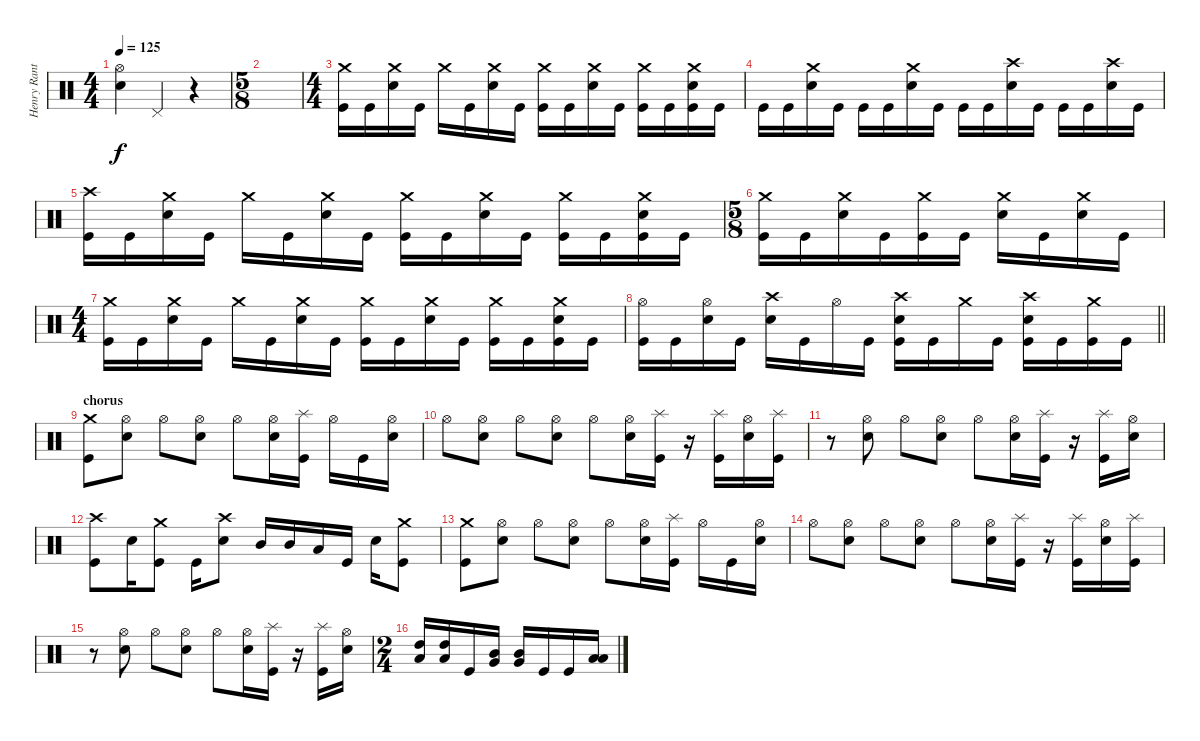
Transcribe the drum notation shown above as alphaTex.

\track ("Henry Ranta" "Henry Rant") {instrument percussion}
\staff {score}
\articulation defaults
\ts (4 4)
\tempo 125
\clef neutral
\ks c
("Hi-Hat (open)" "Electric Snare (hit)").4{dy f} "Pedal Hi-Hat (hit)".4 r.4 |
\ts (5 8)
|
\ts (4 4)
("Crash medium (hit)" "Kick (hit)").16 "Kick (hit)".16 ("Crash medium (hit)" "Electric Snare (hit)").16 "Kick (hit)".16 "Crash medium (hit)".16 "Kick (hit)".16 ("Crash medium (hit)" "Electric Snare (hit)").16 "Kick (hit)".16 ("Crash medium (hit)" "Kick (hit)").16 "Kick (hit)".16 ("Crash medium (hit)" "Electric Snare (hit)").16 "Kick (hit)".16 ("Crash medium (hit)" "Kick (hit)").16 "Kick (hit)".16 ("Crash medium (hit)" "Electric Snare (hit)" "Kick (hit)").16 "Kick (hit)".16 |
"Kick (hit)".16 "Kick (hit)".16 ("Crash medium (hit)" "Electric Snare (hit)").16 "Kick (hit)".16 "Kick (hit)".16 "Kick (hit)".16 ("Crash medium (hit)" "Electric Snare (hit)").16 "Kick (hit)".16 "Kick (hit)".16 "Kick (hit)".16 ("Crash high (hit)" "Electric Snare (hit)").16 "Kick (hit)".16 "Kick (hit)".16 "Kick (hit)".16 ("Crash high (hit)" "Electric Snare (hit)").16 "Kick (hit)".16 |
("Crash high (hit)" "Kick (hit)").16 "Kick (hit)".16 ("Crash medium (hit)" "Electric Snare (hit)").16 "Kick (hit)".16 "Crash medium (hit)".16 "Kick (hit)".16 ("Crash medium (hit)" "Electric Snare (hit)").16 "Kick (hit)".16 ("Crash medium (hit)" "Kick (hit)").16 "Kick (hit)".16 ("Crash medium (hit)" "Electric Snare (hit)").16 "Kick (hit)".16 ("Crash medium (hit)" "Kick (hit)").16 "Kick (hit)".16 ("Crash medium (hit)" "Electric Snare (hit)" "Kick (hit)").16 "Kick (hit)".16 |
\ts (5 8)
("Crash medium (hit)" "Kick (hit)").16 "Kick (hit)".16 ("Crash medium (hit)" "Electric Snare (hit)").16 "Kick (hit)".16 ("Crash medium (hit)" "Kick (hit)").16 "Kick (hit)".16 ("Crash medium (hit)" "Electric Snare (hit)").16 "Kick (hit)".16 ("Crash medium (hit)" "Electric Snare (hit)").16 "Kick (hit)".16 |
\ts (4 4)
("Crash medium (hit)" "Kick (hit)").16 "Kick (hit)".16 ("Crash medium (hit)" "Electric Snare (hit)").16 "Kick (hit)".16 "Crash medium (hit)".16 "Kick (hit)".16 ("Crash medium (hit)" "Electric Snare (hit)").16 "Kick (hit)".16 ("Crash medium (hit)" "Kick (hit)").16 "Kick (hit)".16 ("Crash medium (hit)" "Electric Snare (hit)").16 "Kick (hit)".16 ("Crash medium (hit)" "Kick (hit)").16 "Kick (hit)".16 ("Crash medium (hit)" "Electric Snare (hit)" "Kick (hit)").16 "Kick (hit)".16 |
\barLineRight lightlight
("Hi-Hat (open)" "Kick (hit)").16 "Kick (hit)".16 ("Hi-Hat (open)" "Electric Snare (hit)").16 "Kick (hit)".16 ("Crash high (hit)" "Electric Snare (hit)").16 "Kick (hit)".16 "Hi-Hat (open)".16 "Kick (hit)".16 ("Crash high (hit)" "Electric Snare (hit)" "Kick (hit)").16 "Kick (hit)".16 "Crash medium (hit)".16 "Kick (hit)".16 ("Crash high (hit)" "Electric Snare (hit)" "Kick (hit)").16 "Kick (hit)".16 ("Crash medium (hit)" "Kick (hit)").16 "Kick (hit)".16 |
\section ("" "chorus")
("Crash medium (hit)" "Kick (hit)").8 ("Hi-Hat (open)" "Electric Snare (hit)").8 "Hi-Hat (open)".8 ("Hi-Hat (open)" "Electric Snare (hit)").8 "Hi-Hat (open)".8 ("Hi-Hat (open)" "Electric Snare (hit)").16 ("Splash (hit)" "Kick (hit)").16 "Hi-Hat (open)".16 "Kick (hit)".16 ("Hi-Hat (open)" "Electric Snare (hit)").16 |
"Hi-Hat (open)".8 ("Hi-Hat (open)" "Electric Snare (hit)").8 "Hi-Hat (open)".8 ("Hi-Hat (open)" "Electric Snare (hit)").8 "Hi-Hat (open)".8 ("Hi-Hat (open)" "Electric Snare (hit)").16 ("Splash (hit)" "Kick (hit)").16 r.16 ("Splash (hit)" "Kick (hit)").16 ("Hi-Hat (open)" "Electric Snare (hit)").16 ("Splash (hit)" "Kick (hit)").16 |
r.8 ("Hi-Hat (open)" "Electric Snare (hit)").8 "Hi-Hat (open)".8 ("Hi-Hat (open)" "Electric Snare (hit)").8 "Hi-Hat (open)".8 ("Hi-Hat (open)" "Electric Snare (hit)").16 ("Splash (hit)" "Kick (hit)").16 r.16 ("Splash (hit)" "Kick (hit)").16 ("Hi-Hat (open)" "Electric Snare (hit)").16 |
("Crash high (hit)" "Kick (hit)").8 "Electric Snare (hit)".16 ("Crash medium (hit)" "Kick (hit)").8 "Kick (hit)".16 ("Crash high (hit)" "Electric Snare (hit)").8 "Mid Tom (hit)".16 "Mid Tom (hit)".16 "Low Tom (hit)".16 "Kick (hit)".16 "Electric Snare (hit)".16 ("Crash medium (hit)" "Kick (hit)").8 |
("Crash medium (hit)" "Kick (hit)").8 ("Hi-Hat (open)" "Electric Snare (hit)").8 "Hi-Hat (open)".8 ("Hi-Hat (open)" "Electric Snare (hit)").8 "Hi-Hat (open)".8 ("Hi-Hat (open)" "Electric Snare (hit)").16 ("Splash (hit)" "Kick (hit)").16 "Hi-Hat (open)".16 "Kick (hit)".16 ("Hi-Hat (open)" "Electric Snare (hit)").16 |
"Hi-Hat (open)".8 ("Hi-Hat (open)" "Electric Snare (hit)").8 "Hi-Hat (open)".8 ("Hi-Hat (open)" "Electric Snare (hit)").8 "Hi-Hat (open)".8 ("Hi-Hat (open)" "Electric Snare (hit)").16 ("Splash (hit)" "Kick (hit)").16 r.16 ("Splash (hit)" "Kick (hit)").16 ("Hi-Hat (open)" "Electric Snare (hit)").16 ("Splash (hit)" "Kick (hit)").16 |
r.8 ("Hi-Hat (open)" "Electric Snare (hit)").8 "Hi-Hat (open)".8 ("Hi-Hat (open)" "Electric Snare (hit)").8 "Hi-Hat (open)".8 ("Hi-Hat (open)" "Electric Snare (hit)").16 ("Splash (hit)" "Kick (hit)").16 r.16 ("Splash (hit)" "Kick (hit)").16 ("Hi-Hat (open)" "Electric Snare (hit)").16 |
\ts (2 4)
("High Tom (hit)" "Low Tom (hit)").16 ("High Tom (hit)" "Low Tom (hit)").16 "Kick (hit)".16 ("Mid Tom (hit)" "Very Low Tom (hit)").16 ("Mid Tom (hit)" "Very Low Tom (hit)").16 "Kick (hit)".16 "Kick (hit)".16 ("Low Tom (hit)" "Low Floor Tom (hit)").16
